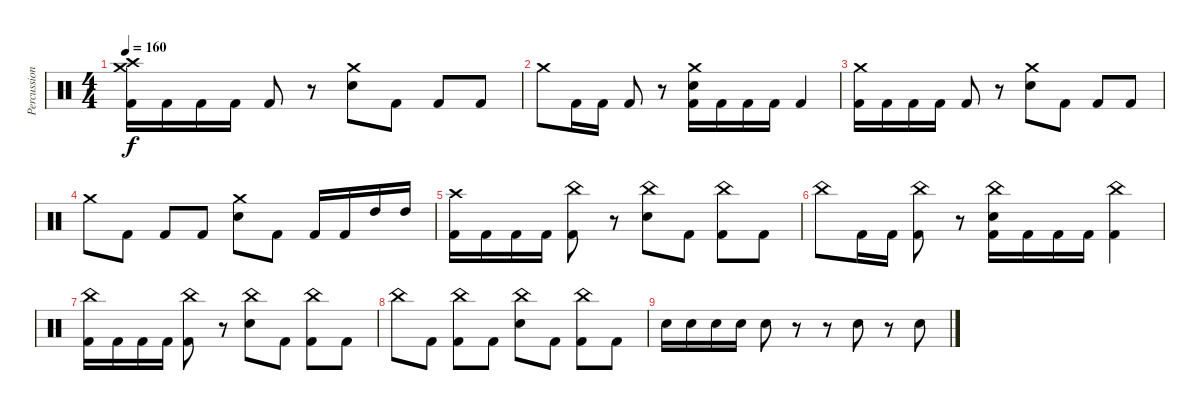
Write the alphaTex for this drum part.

\track ("Percussion" "Percussion") {instrument percussion}
\staff {score}
\articulation defaults
\ts (4 4)
\tempo 160
\clef neutral
\ks c
("Crash high (hit)" "Crash medium (hit)" "Kick (hit) 2").16{dy f} "Kick (hit) 2".16 "Kick (hit) 2".16 "Kick (hit) 2".16 "Kick (hit) 2".8 r.8 ("Crash medium (hit)" "Electric Snare (hit)").8 "Kick (hit) 2".8 "Kick (hit) 2".8 "Kick (hit) 2".8 |
"Crash medium (hit)".8 "Kick (hit) 2".16 "Kick (hit) 2".16 "Kick (hit) 2".8 r.8 ("Crash medium (hit)" "Electric Snare (hit)" "Kick (hit) 2").16 "Kick (hit) 2".16 "Kick (hit) 2".16 "Kick (hit) 2".16 "Kick (hit) 2".4 |
("Crash medium (hit)" "Kick (hit) 2").16 "Kick (hit) 2".16 "Kick (hit) 2".16 "Kick (hit) 2".16 "Kick (hit) 2".8 r.8 ("Crash medium (hit)" "Electric Snare (hit)").8 "Kick (hit) 2".8 "Kick (hit) 2".8 "Kick (hit) 2".8 |
"Crash medium (hit)".8 "Kick (hit) 2".8 "Kick (hit) 2".8 "Kick (hit) 2".8 ("Crash medium (hit)" "Electric Snare (hit)").8 "Kick (hit) 2".8 "Kick (hit) 2".16 "Kick (hit) 2".16 "High Tom (hit)".16 "High Tom (hit)".16 |
("Crash high (hit)" "Kick (hit) 2").16 "Kick (hit) 2".16 "Kick (hit) 2".16 "Kick (hit) 2".16 ("China (hit)" "Kick (hit) 2").8 r.8 ("China (hit)" "Electric Snare (hit)").8 "Kick (hit) 2".8 ("China (hit)" "Kick (hit) 2").8 "Kick (hit) 2".8 |
"China (hit)".8 "Kick (hit) 2".16 "Kick (hit) 2".16 ("China (hit)" "Kick (hit) 2").8 r.8 ("China (hit)" "Electric Snare (hit)" "Kick (hit) 2").16 "Kick (hit) 2".16 "Kick (hit) 2".16 "Kick (hit) 2".16 ("China (hit)" "Kick (hit) 2").4 |
("China (hit)" "Kick (hit) 2").16 "Kick (hit) 2".16 "Kick (hit) 2".16 "Kick (hit) 2".16 ("China (hit)" "Kick (hit) 2").8 r.8 ("China (hit)" "Electric Snare (hit)").8 "Kick (hit) 2".8 ("China (hit)" "Kick (hit) 2").8 "Kick (hit) 2".8 |
"China (hit)".8 "Kick (hit) 2".8 ("China (hit)" "Kick (hit) 2").8 "Kick (hit) 2".8 ("China (hit)" "Electric Snare (hit)").8 "Kick (hit) 2".8 ("China (hit)" "Kick (hit) 2").8 "Kick (hit) 2".8 |
"Electric Snare (hit)".16 "Electric Snare (hit)".16 "Electric Snare (hit)".16 "Electric Snare (hit)".16 "Electric Snare (hit)".8 r.8 r.8 "Electric Snare (hit)".8 r.8 "Electric Snare (hit)".8
